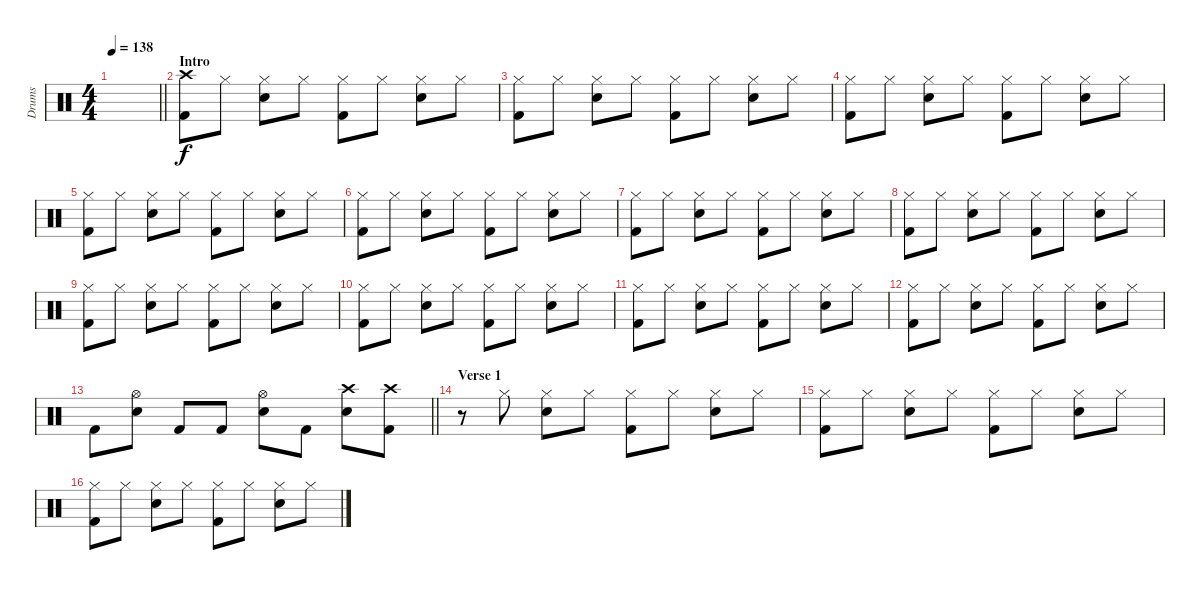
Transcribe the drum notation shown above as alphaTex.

\track ("Drums" "Drums") {instrument percussion}
\staff {score}
\articulation defaults
\ts (4 4)
\tempo 138
\clef neutral
\barLineRight lightlight
\ks c
|
\section ("" "Intro")
("Crash high (hit)" "Kick (hit) 2").8 "Hi-Hat (closed)".8 ("Hi-Hat (closed)" "Snare (hit) 2").8 "Hi-Hat (closed)".8 ("Hi-Hat (closed)" "Kick (hit) 2").8 "Hi-Hat (closed)".8 ("Hi-Hat (closed)" "Snare (hit) 2").8 "Hi-Hat (closed)".8 |
("Hi-Hat (closed)" "Kick (hit) 2").8 "Hi-Hat (closed)".8 ("Hi-Hat (closed)" "Snare (hit) 2").8 "Hi-Hat (closed)".8 ("Hi-Hat (closed)" "Kick (hit) 2").8 "Hi-Hat (closed)".8 ("Hi-Hat (closed)" "Snare (hit) 2").8 "Hi-Hat (closed)".8 |
("Hi-Hat (closed)" "Kick (hit) 2").8 "Hi-Hat (closed)".8 ("Hi-Hat (closed)" "Snare (hit) 2").8 "Hi-Hat (closed)".8 ("Hi-Hat (closed)" "Kick (hit) 2").8 "Hi-Hat (closed)".8 ("Hi-Hat (closed)" "Snare (hit) 2").8 "Hi-Hat (closed)".8 |
("Hi-Hat (closed)" "Kick (hit) 2").8 "Hi-Hat (closed)".8 ("Hi-Hat (closed)" "Snare (hit) 2").8 "Hi-Hat (closed)".8 ("Hi-Hat (closed)" "Kick (hit) 2").8 "Hi-Hat (closed)".8 ("Hi-Hat (closed)" "Snare (hit) 2").8 "Hi-Hat (closed)".8 |
("Hi-Hat (closed)" "Kick (hit) 2").8 "Hi-Hat (closed)".8 ("Hi-Hat (closed)" "Snare (hit) 2").8 "Hi-Hat (closed)".8 ("Hi-Hat (closed)" "Kick (hit) 2").8 "Hi-Hat (closed)".8 ("Hi-Hat (closed)" "Snare (hit) 2").8 "Hi-Hat (closed)".8 |
("Hi-Hat (closed)" "Kick (hit) 2").8 "Hi-Hat (closed)".8 ("Hi-Hat (closed)" "Snare (hit) 2").8 "Hi-Hat (closed)".8 ("Hi-Hat (closed)" "Kick (hit) 2").8 "Hi-Hat (closed)".8 ("Hi-Hat (closed)" "Snare (hit) 2").8 "Hi-Hat (closed)".8 |
("Hi-Hat (closed)" "Kick (hit) 2").8 "Hi-Hat (closed)".8 ("Hi-Hat (closed)" "Snare (hit) 2").8 "Hi-Hat (closed)".8 ("Hi-Hat (closed)" "Kick (hit) 2").8 "Hi-Hat (closed)".8 ("Hi-Hat (closed)" "Snare (hit) 2").8 "Hi-Hat (closed)".8 |
("Hi-Hat (closed)" "Kick (hit) 2").8 "Hi-Hat (closed)".8 ("Hi-Hat (closed)" "Snare (hit) 2").8 "Hi-Hat (closed)".8 ("Hi-Hat (closed)" "Kick (hit) 2").8 "Hi-Hat (closed)".8 ("Hi-Hat (closed)" "Snare (hit) 2").8 "Hi-Hat (closed)".8 |
("Hi-Hat (closed)" "Kick (hit) 2").8 "Hi-Hat (closed)".8 ("Hi-Hat (closed)" "Snare (hit) 2").8 "Hi-Hat (closed)".8 ("Hi-Hat (closed)" "Kick (hit) 2").8 "Hi-Hat (closed)".8 ("Hi-Hat (closed)" "Snare (hit) 2").8 "Hi-Hat (closed)".8 |
("Hi-Hat (closed)" "Kick (hit) 2").8 "Hi-Hat (closed)".8 ("Hi-Hat (closed)" "Snare (hit) 2").8 "Hi-Hat (closed)".8 ("Hi-Hat (closed)" "Kick (hit) 2").8 "Hi-Hat (closed)".8 ("Hi-Hat (closed)" "Snare (hit) 2").8 "Hi-Hat (closed)".8 |
("Hi-Hat (closed)" "Kick (hit) 2").8 "Hi-Hat (closed)".8 ("Hi-Hat (closed)" "Snare (hit) 2").8 "Hi-Hat (closed)".8 ("Hi-Hat (closed)" "Kick (hit) 2").8 "Hi-Hat (closed)".8 ("Hi-Hat (closed)" "Snare (hit) 2").8 "Hi-Hat (closed)".8 |
\barLineRight lightlight "Kick (hit) 2".8
("Hi-Hat (open)" "Snare (hit) 2").8 "Kick (hit) 2".8 "Kick (hit) 2".8 ("Hi-Hat (open)" "Snare (hit) 2").8 "Kick (hit) 2".8 ("Crash high (hit)" "Snare (hit) 2").8 ("Crash high (hit)" "Kick (hit) 2").8 |
\section ("" "Verse 1")
r.8 "Hi-Hat (closed)".8 ("Hi-Hat (closed)" "Snare (hit) 2").8 "Hi-Hat (closed)".8 ("Hi-Hat (closed)" "Kick (hit) 2").8 "Hi-Hat (closed)".8 ("Hi-Hat (closed)" "Snare (hit) 2").8 "Hi-Hat (closed)".8 |
("Hi-Hat (closed)" "Kick (hit) 2").8 "Hi-Hat (closed)".8 ("Hi-Hat (closed)" "Snare (hit) 2").8 "Hi-Hat (closed)".8 ("Hi-Hat (closed)" "Kick (hit) 2").8 "Hi-Hat (closed)".8 ("Hi-Hat (closed)" "Snare (hit) 2").8 "Hi-Hat (closed)".8 |
("Hi-Hat (closed)" "Kick (hit) 2").8 "Hi-Hat (closed)".8 ("Hi-Hat (closed)" "Snare (hit) 2").8 "Hi-Hat (closed)".8 ("Hi-Hat (closed)" "Kick (hit) 2").8 "Hi-Hat (closed)".8 ("Hi-Hat (closed)" "Snare (hit) 2").8 "Hi-Hat (closed)".8
